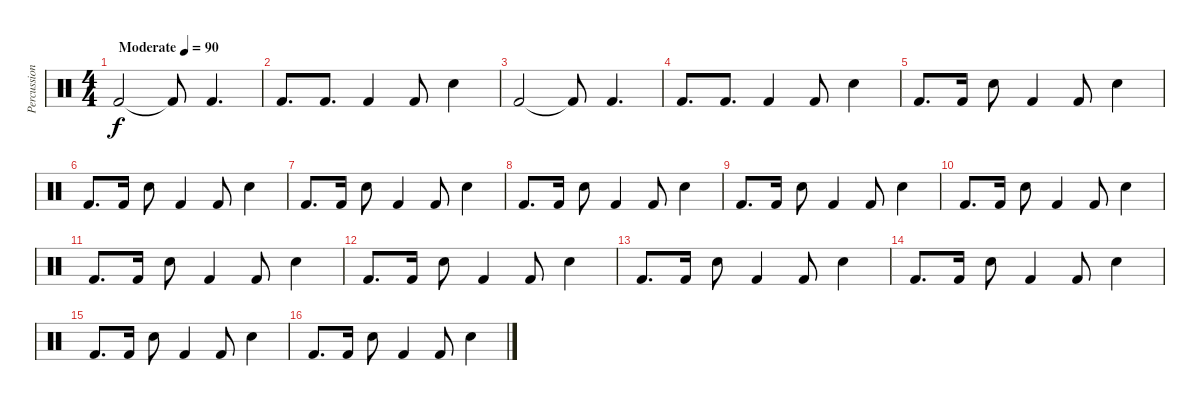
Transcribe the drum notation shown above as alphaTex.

\track ("Percussion" "Percussion") {instrument percussion}
\staff {score}
\articulation defaults
\ts (4 4)
\tempo (90 "Moderate")
\clef neutral
\ks c "Kick (hit) 2".2{dy f} "Kick (hit) 2"{t}.8 "Kick (hit) 2".4{d}
|
"Kick (hit) 2".8{d} "Kick (hit) 2".8{d} "Kick (hit) 2".4 "Kick (hit) 2".8 "Snare (hit) 2".4 |
"Kick (hit) 2".2 "Kick (hit) 2"{t}.8 "Kick (hit) 2".4{d} |
"Kick (hit) 2".8{d} "Kick (hit) 2".8{d} "Kick (hit) 2".4 "Kick (hit) 2".8 "Snare (hit) 2".4 |
"Kick (hit) 2".8{d} "Kick (hit) 2".16 "Snare (hit) 2".8 "Kick (hit) 2".4 "Kick (hit) 2".8 "Snare (hit) 2".4 |
"Kick (hit) 2".8{d} "Kick (hit) 2".16 "Snare (hit) 2".8 "Kick (hit) 2".4 "Kick (hit) 2".8 "Snare (hit) 2".4 |
"Kick (hit) 2".8{d} "Kick (hit) 2".16 "Snare (hit) 2".8 "Kick (hit) 2".4 "Kick (hit) 2".8 "Snare (hit) 2".4 |
"Kick (hit) 2".8{d} "Kick (hit) 2".16 "Snare (hit) 2".8 "Kick (hit) 2".4 "Kick (hit) 2".8 "Snare (hit) 2".4 |
"Kick (hit) 2".8{d} "Kick (hit) 2".16 "Snare (hit) 2".8 "Kick (hit) 2".4 "Kick (hit) 2".8 "Snare (hit) 2".4 |
"Kick (hit) 2".8{d} "Kick (hit) 2".16 "Snare (hit) 2".8 "Kick (hit) 2".4 "Kick (hit) 2".8 "Snare (hit) 2".4 |
"Kick (hit) 2".8{d} "Kick (hit) 2".16 "Snare (hit) 2".8 "Kick (hit) 2".4 "Kick (hit) 2".8 "Snare (hit) 2".4 |
"Kick (hit) 2".8{d} "Kick (hit) 2".16 "Snare (hit) 2".8 "Kick (hit) 2".4 "Kick (hit) 2".8 "Snare (hit) 2".4 |
"Kick (hit) 2".8{d} "Kick (hit) 2".16 "Snare (hit) 2".8 "Kick (hit) 2".4 "Kick (hit) 2".8 "Snare (hit) 2".4 |
"Kick (hit) 2".8{d} "Kick (hit) 2".16 "Snare (hit) 2".8 "Kick (hit) 2".4 "Kick (hit) 2".8 "Snare (hit) 2".4 |
"Kick (hit) 2".8{d} "Kick (hit) 2".16 "Snare (hit) 2".8 "Kick (hit) 2".4 "Kick (hit) 2".8 "Snare (hit) 2".4 |
"Kick (hit) 2".8{d} "Kick (hit) 2".16 "Snare (hit) 2".8 "Kick (hit) 2".4 "Kick (hit) 2".8 "Snare (hit) 2".4
